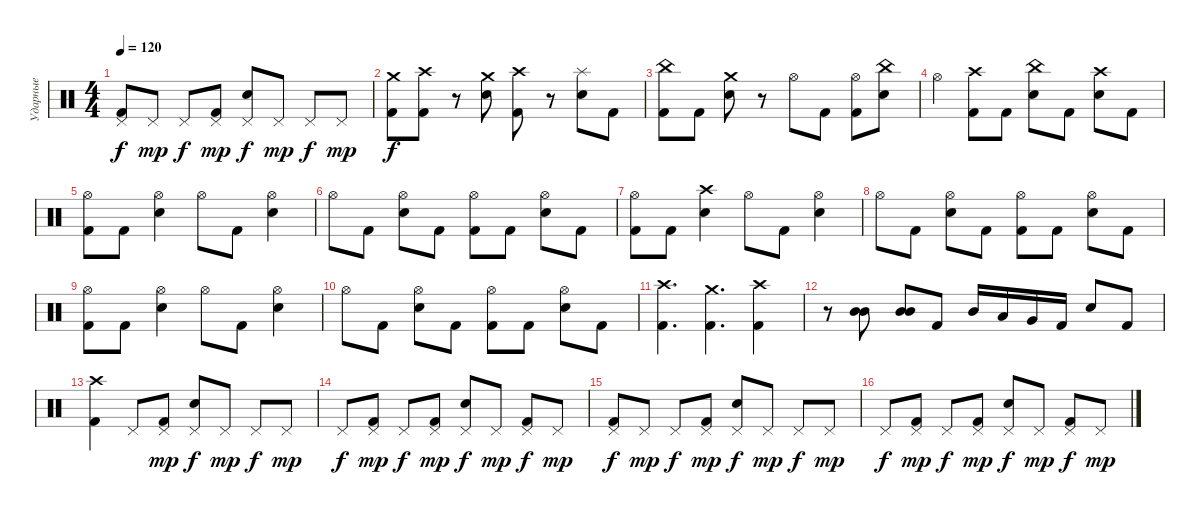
\track ("Ударные" "Ударные") {instrument percussion}
\staff {score}
\articulation defaults
\ts (4 4)
\tempo 120
\clef neutral
\ks c
("Pedal Hi-Hat (hit)" "Kick (hit) 2").8{dy f} "Pedal Hi-Hat (hit)".8{dy mp} "Pedal Hi-Hat (hit)".8{dy f} ("Pedal Hi-Hat (hit)" "Kick (hit) 2").8{dy mp} ("Pedal Hi-Hat (hit)" "Electric Snare (hit)").8{dy f} "Pedal Hi-Hat (hit)".8{dy mp} "Pedal Hi-Hat (hit)".8{dy f} "Pedal Hi-Hat (hit)".8{dy mp} |
("Crash medium (hit)" "Kick (hit) 2").8{dy f} ("Crash high (hit)" "Kick (hit) 2").8 r.8 ("Crash medium (hit)" "Electric Snare (hit)").8 ("Crash high (hit)" "Kick (hit) 2").8 r.8 ("Splash (hit)" "Electric Snare (hit)").8 "Kick (hit) 2".8 |
("China (hit)" "Kick (hit) 2").8 "Kick (hit) 2".8 ("Crash medium (hit)" "Electric Snare (hit)").8 r.8 "Hi-Hat (open)".8 "Kick (hit) 2".8 ("Hi-Hat (open)" "Kick (hit) 2").8 ("China (hit)" "Electric Snare (hit)").8 |
"Hi-Hat (open)".4 ("Crash high (hit)" "Kick (hit) 2").8 "Kick (hit) 2".8 ("China (hit)" "Electric Snare (hit)").8 "Kick (hit) 2".8 ("Crash high (hit)" "Electric Snare (hit)").8 "Kick (hit) 2".8 |
("Hi-Hat (open)" "Kick (hit) 2").8 "Kick (hit) 2".8 ("Hi-Hat (open)" "Electric Snare (hit)").4 "Hi-Hat (open)".8 "Kick (hit) 2".8 ("Hi-Hat (open)" "Electric Snare (hit)").4 |
"Hi-Hat (open)".8 "Kick (hit) 2".8 ("Hi-Hat (open)" "Electric Snare (hit)").8 "Kick (hit) 2".8 ("Hi-Hat (open)" "Kick (hit) 2").8 "Kick (hit) 2".8 ("Hi-Hat (open)" "Electric Snare (hit)").8 "Kick (hit) 2".8 |
("Hi-Hat (open)" "Kick (hit) 2").8 "Kick (hit) 2".8 ("Crash high (hit)" "Electric Snare (hit)").4 "Hi-Hat (open)".8 "Kick (hit) 2".8 ("Hi-Hat (open)" "Electric Snare (hit)").4 |
"Hi-Hat (open)".8 "Kick (hit) 2".8 ("Hi-Hat (open)" "Electric Snare (hit)").8 "Kick (hit) 2".8 ("Hi-Hat (open)" "Kick (hit) 2").8 "Kick (hit) 2".8 ("Hi-Hat (open)" "Electric Snare (hit)").8 "Kick (hit) 2".8 |
("Hi-Hat (open)" "Kick (hit) 2").8 "Kick (hit) 2".8 ("Hi-Hat (open)" "Electric Snare (hit)").4 "Hi-Hat (open)".8 "Kick (hit) 2".8 ("Hi-Hat (open)" "Electric Snare (hit)").4 |
"Hi-Hat (open)".8 "Kick (hit) 2".8 ("Hi-Hat (open)" "Electric Snare (hit)").8 "Kick (hit) 2".8 ("Hi-Hat (open)" "Kick (hit) 2").8 "Kick (hit) 2".8 ("Hi-Hat (open)" "Electric Snare (hit)").8 "Kick (hit) 2".8 |
("Crash high (hit)" "Kick (hit) 2").4{d} ("Crash medium (hit)" "Kick (hit) 2").4{d} ("Crash high (hit)" "Kick (hit) 2").4 |
r.8 ("Mid Tom (hit)" "Mid Tom (hit)").8 ("Mid Tom (hit)" "Mid Tom (hit)").8 "Kick (hit) 2".8 "Mid Tom (hit)".16 "Low Tom (hit)".16 "Very Low Tom (hit)".16 "Kick (hit) 2".16 "Electric Snare (hit)".8 "Kick (hit) 2".8 |
("Crash high (hit)" "Kick (hit) 2").4 "Pedal Hi-Hat (hit)".8 ("Pedal Hi-Hat (hit)" "Kick (hit) 2").8{dy mp} ("Pedal Hi-Hat (hit)" "Electric Snare (hit)").8{dy f} "Pedal Hi-Hat (hit)".8{dy mp} "Pedal Hi-Hat (hit)".8{dy f} "Pedal Hi-Hat (hit)".8{dy mp} |
"Pedal Hi-Hat (hit)".8{dy f} ("Pedal Hi-Hat (hit)" "Kick (hit) 2").8{dy mp} "Pedal Hi-Hat (hit)".8{dy f} ("Pedal Hi-Hat (hit)" "Kick (hit) 2").8{dy mp} ("Pedal Hi-Hat (hit)" "Electric Snare (hit)").8{dy f} "Pedal Hi-Hat (hit)".8{dy mp} ("Pedal Hi-Hat (hit)" "Kick (hit) 2").8{dy f} "Pedal Hi-Hat (hit)".8{dy mp} |
("Pedal Hi-Hat (hit)" "Kick (hit) 2").8{dy f} "Pedal Hi-Hat (hit)".8{dy mp} "Pedal Hi-Hat (hit)".8{dy f} ("Pedal Hi-Hat (hit)" "Kick (hit) 2").8{dy mp} ("Pedal Hi-Hat (hit)" "Electric Snare (hit)").8{dy f} "Pedal Hi-Hat (hit)".8{dy mp} "Pedal Hi-Hat (hit)".8{dy f} "Pedal Hi-Hat (hit)".8{dy mp} |
"Pedal Hi-Hat (hit)".8{dy f} ("Pedal Hi-Hat (hit)" "Kick (hit) 2").8{dy mp} "Pedal Hi-Hat (hit)".8{dy f} ("Pedal Hi-Hat (hit)" "Kick (hit) 2").8{dy mp} ("Pedal Hi-Hat (hit)" "Electric Snare (hit)").8{dy f} "Pedal Hi-Hat (hit)".8{dy mp} ("Pedal Hi-Hat (hit)" "Kick (hit) 2").8{dy f} "Pedal Hi-Hat (hit)".8{dy mp}
